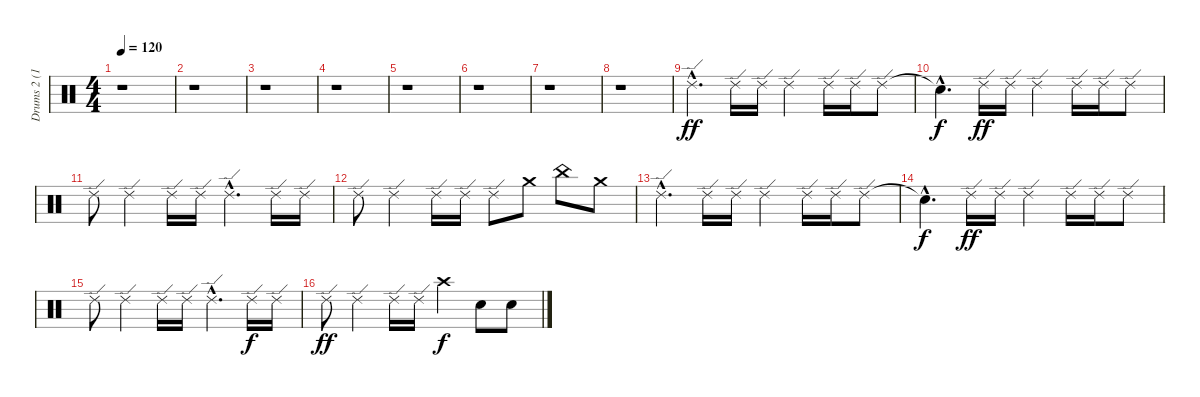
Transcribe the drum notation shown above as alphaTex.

\track ("Drums 2 (16)" "Drums 2 (1") {instrument percussion}
\staff {score}
\articulation defaults
\ts (4 4)
\tempo 120
\clef neutral
\ks c
r.1{dy ff} |
r.1 |
r.1 |
r.1 |
r.1 |
r.1 |
r.1 |
r.1 |
"Ride (edge) 2"{hac}.4{d} "Ride (edge) 2".16 "Ride (edge) 2".16 "Ride (edge) 2".4 "Ride (edge) 2".16 "Ride (edge) 2".16 "Ride (edge) 2".8 |
"Snare (hit)"{hac t}.4{d dy f} "Ride (edge) 2".16{dy ff} "Ride (edge) 2".16 "Ride (edge) 2".4 "Ride (edge) 2".16 "Ride (edge) 2".16 "Ride (edge) 2".8 |
"Ride (edge) 2".8 "Ride (edge) 2".4 "Ride (edge) 2".16 "Ride (edge) 2".16 "Ride (edge) 2"{hac}.4{d} "Ride (edge) 2".16 "Ride (edge) 2".16 |
"Ride (edge) 2".8 "Ride (edge) 2".4 "Ride (edge) 2".16 "Ride (edge) 2".16 "Ride (edge) 2".8 "Crash medium (hit)".8 "China (hit)".8 "Crash medium (hit)".8 |
"Ride (edge) 2"{hac}.4{d} "Ride (edge) 2".16 "Ride (edge) 2".16 "Ride (edge) 2".4 "Ride (edge) 2".16 "Ride (edge) 2".16 "Ride (edge) 2".8 |
"Snare (hit)"{hac t}.4{d dy f} "Ride (edge) 2".16{dy ff} "Ride (edge) 2".16 "Ride (edge) 2".4 "Ride (edge) 2".16 "Ride (edge) 2".16 "Ride (edge) 2".8 |
"Ride (edge) 2".8 "Ride (edge) 2".4 "Ride (edge) 2".16 "Ride (edge) 2".16 "Ride (edge) 2"{hac}.4{d} "Ride (edge) 2".16{dy f} "Ride (edge) 2".16 |
"Ride (edge) 2".8{dy ff} "Ride (edge) 2".4 "Ride (edge) 2".16 "Ride (edge) 2".16 "Crash high (hit)".4{dy f} "Hand Clap (hit)".8 "Hand Clap (hit)".8
